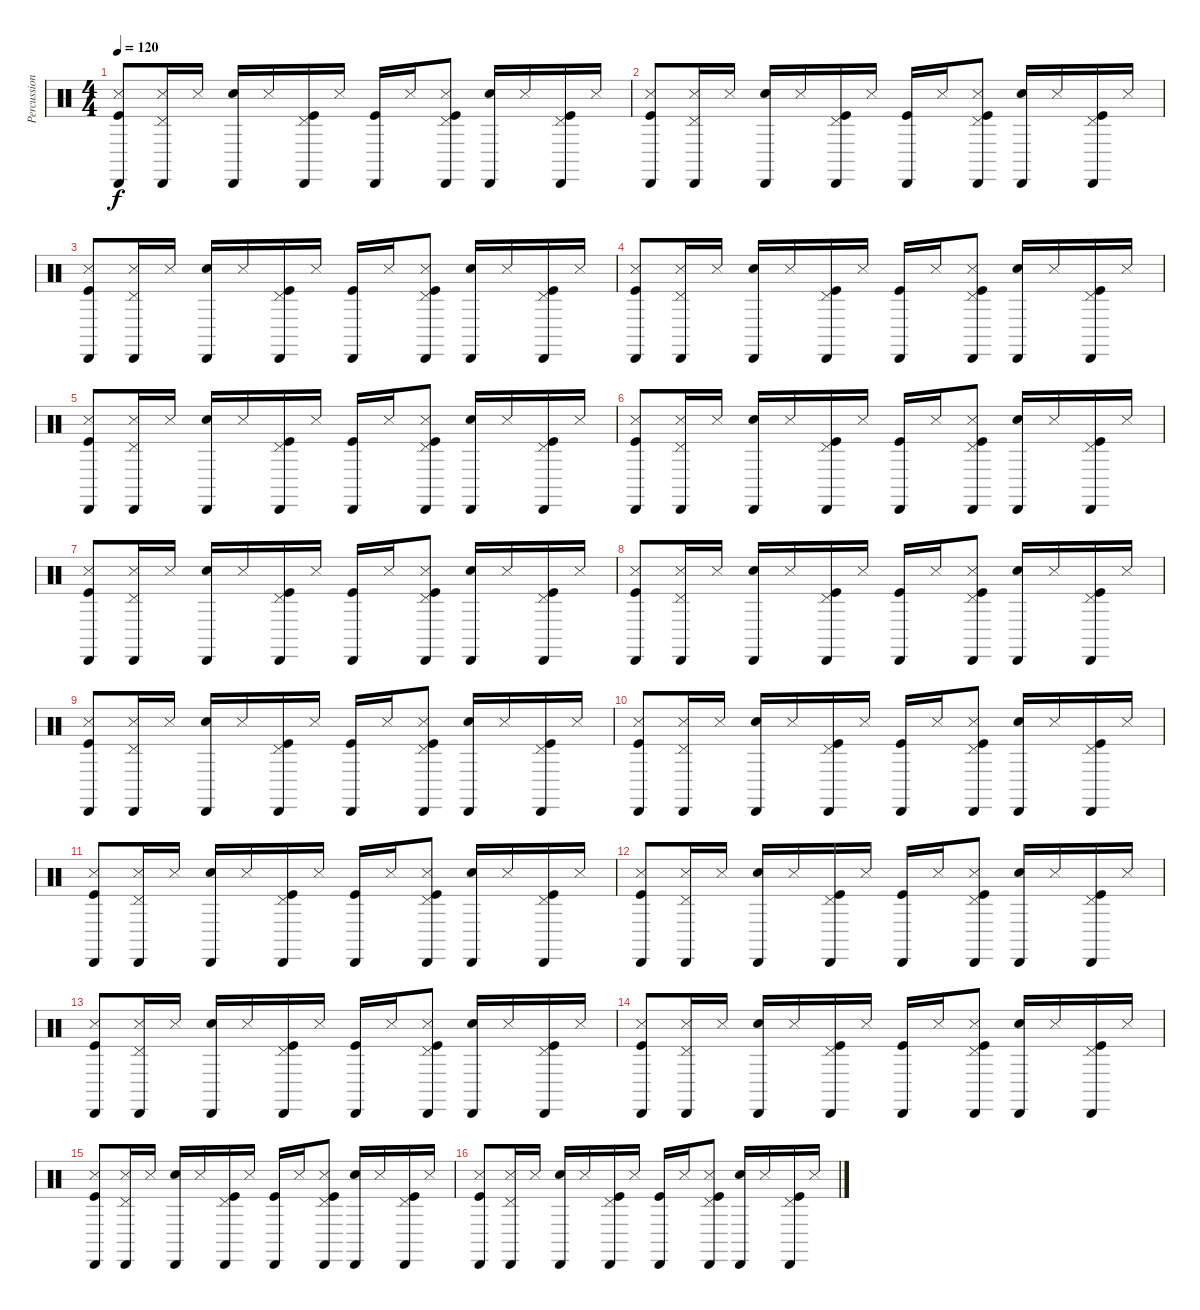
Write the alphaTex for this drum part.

\track ("Percussions" "Percussion") {instrument percussion}
\staff {score}
\articulation defaults
\ts (4 4)
\tempo 120
\clef neutral
\ks c
("Kick (hit)" "Cabasa (hit)" "Metronome (hit)").8{dy f} ("Cabasa (hit)" "Pedal Hi-Hat (hit)" "Metronome (hit)").16 "Metronome (hit)".16 ("Snare (hit) 2" "Cabasa (hit)").16 "Metronome (hit)".16 ("Kick (hit)" "Cabasa (hit)" "Pedal Hi-Hat (hit)").16 "Metronome (hit)".16 ("Kick (hit)" "Cabasa (hit)").16 "Metronome (hit)".16 ("Kick (hit)" "Cabasa (hit)" "Pedal Hi-Hat (hit)" "Metronome (hit)").8 ("Snare (hit) 2" "Cabasa (hit)").16 "Metronome (hit)".16 ("Kick (hit)" "Cabasa (hit)" "Pedal Hi-Hat (hit)").16 "Metronome (hit)".16 |
("Kick (hit)" "Cabasa (hit)" "Metronome (hit)").8 ("Cabasa (hit)" "Pedal Hi-Hat (hit)" "Metronome (hit)").16 "Metronome (hit)".16 ("Snare (hit) 2" "Cabasa (hit)").16 "Metronome (hit)".16 ("Kick (hit)" "Cabasa (hit)" "Pedal Hi-Hat (hit)").16 "Metronome (hit)".16 ("Kick (hit)" "Cabasa (hit)").16 "Metronome (hit)".16 ("Kick (hit)" "Cabasa (hit)" "Pedal Hi-Hat (hit)" "Metronome (hit)").8 ("Snare (hit) 2" "Cabasa (hit)").16 "Metronome (hit)".16 ("Kick (hit)" "Cabasa (hit)" "Pedal Hi-Hat (hit)").16 "Metronome (hit)".16 |
("Kick (hit)" "Cabasa (hit)" "Metronome (hit)").8 ("Cabasa (hit)" "Pedal Hi-Hat (hit)" "Metronome (hit)").16 "Metronome (hit)".16 ("Snare (hit) 2" "Cabasa (hit)").16 "Metronome (hit)".16 ("Kick (hit)" "Cabasa (hit)" "Pedal Hi-Hat (hit)").16 "Metronome (hit)".16 ("Kick (hit)" "Cabasa (hit)").16 "Metronome (hit)".16 ("Kick (hit)" "Cabasa (hit)" "Pedal Hi-Hat (hit)" "Metronome (hit)").8 ("Snare (hit) 2" "Cabasa (hit)").16 "Metronome (hit)".16 ("Kick (hit)" "Cabasa (hit)" "Pedal Hi-Hat (hit)").16 "Metronome (hit)".16 |
("Kick (hit)" "Cabasa (hit)" "Metronome (hit)").8 ("Cabasa (hit)" "Pedal Hi-Hat (hit)" "Metronome (hit)").16 "Metronome (hit)".16 ("Snare (hit) 2" "Cabasa (hit)").16 "Metronome (hit)".16 ("Kick (hit)" "Cabasa (hit)" "Pedal Hi-Hat (hit)").16 "Metronome (hit)".16 ("Kick (hit)" "Cabasa (hit)").16 "Metronome (hit)".16 ("Kick (hit)" "Cabasa (hit)" "Pedal Hi-Hat (hit)" "Metronome (hit)").8 ("Snare (hit) 2" "Cabasa (hit)").16 "Metronome (hit)".16 ("Kick (hit)" "Cabasa (hit)" "Pedal Hi-Hat (hit)").16 "Metronome (hit)".16 |
("Kick (hit)" "Cabasa (hit)" "Metronome (hit)").8 ("Cabasa (hit)" "Pedal Hi-Hat (hit)" "Metronome (hit)").16 "Metronome (hit)".16 ("Snare (hit) 2" "Cabasa (hit)").16 "Metronome (hit)".16 ("Kick (hit)" "Cabasa (hit)" "Pedal Hi-Hat (hit)").16 "Metronome (hit)".16 ("Kick (hit)" "Cabasa (hit)").16 "Metronome (hit)".16 ("Kick (hit)" "Cabasa (hit)" "Pedal Hi-Hat (hit)" "Metronome (hit)").8 ("Snare (hit) 2" "Cabasa (hit)").16 "Metronome (hit)".16 ("Kick (hit)" "Cabasa (hit)" "Pedal Hi-Hat (hit)").16 "Metronome (hit)".16 |
("Kick (hit)" "Cabasa (hit)" "Metronome (hit)").8 ("Cabasa (hit)" "Pedal Hi-Hat (hit)" "Metronome (hit)").16 "Metronome (hit)".16 ("Snare (hit) 2" "Cabasa (hit)").16 "Metronome (hit)".16 ("Kick (hit)" "Cabasa (hit)" "Pedal Hi-Hat (hit)").16 "Metronome (hit)".16 ("Kick (hit)" "Cabasa (hit)").16 "Metronome (hit)".16 ("Kick (hit)" "Cabasa (hit)" "Pedal Hi-Hat (hit)" "Metronome (hit)").8 ("Snare (hit) 2" "Cabasa (hit)").16 "Metronome (hit)".16 ("Kick (hit)" "Cabasa (hit)" "Pedal Hi-Hat (hit)").16 "Metronome (hit)".16 |
("Kick (hit)" "Cabasa (hit)" "Metronome (hit)").8 ("Cabasa (hit)" "Pedal Hi-Hat (hit)" "Metronome (hit)").16 "Metronome (hit)".16 ("Snare (hit) 2" "Cabasa (hit)").16 "Metronome (hit)".16 ("Kick (hit)" "Cabasa (hit)" "Pedal Hi-Hat (hit)").16 "Metronome (hit)".16 ("Kick (hit)" "Cabasa (hit)").16 "Metronome (hit)".16 ("Kick (hit)" "Cabasa (hit)" "Pedal Hi-Hat (hit)" "Metronome (hit)").8 ("Snare (hit) 2" "Cabasa (hit)").16 "Metronome (hit)".16 ("Kick (hit)" "Cabasa (hit)" "Pedal Hi-Hat (hit)").16 "Metronome (hit)".16 |
("Kick (hit)" "Cabasa (hit)" "Metronome (hit)").8 ("Cabasa (hit)" "Pedal Hi-Hat (hit)" "Metronome (hit)").16 "Metronome (hit)".16 ("Snare (hit) 2" "Cabasa (hit)").16 "Metronome (hit)".16 ("Kick (hit)" "Cabasa (hit)" "Pedal Hi-Hat (hit)").16 "Metronome (hit)".16 ("Kick (hit)" "Cabasa (hit)").16 "Metronome (hit)".16 ("Kick (hit)" "Cabasa (hit)" "Pedal Hi-Hat (hit)" "Metronome (hit)").8 ("Snare (hit) 2" "Cabasa (hit)").16 "Metronome (hit)".16 ("Kick (hit)" "Cabasa (hit)" "Pedal Hi-Hat (hit)").16 "Metronome (hit)".16 |
("Kick (hit)" "Cabasa (hit)" "Metronome (hit)").8 ("Cabasa (hit)" "Pedal Hi-Hat (hit)" "Metronome (hit)").16 "Metronome (hit)".16 ("Snare (hit) 2" "Cabasa (hit)").16 "Metronome (hit)".16 ("Kick (hit)" "Cabasa (hit)" "Pedal Hi-Hat (hit)").16 "Metronome (hit)".16 ("Kick (hit)" "Cabasa (hit)").16 "Metronome (hit)".16 ("Kick (hit)" "Cabasa (hit)" "Pedal Hi-Hat (hit)" "Metronome (hit)").8 ("Snare (hit) 2" "Cabasa (hit)").16 "Metronome (hit)".16 ("Kick (hit)" "Cabasa (hit)" "Pedal Hi-Hat (hit)").16 "Metronome (hit)".16 |
("Kick (hit)" "Cabasa (hit)" "Metronome (hit)").8 ("Cabasa (hit)" "Pedal Hi-Hat (hit)" "Metronome (hit)").16 "Metronome (hit)".16 ("Snare (hit) 2" "Cabasa (hit)").16 "Metronome (hit)".16 ("Kick (hit)" "Cabasa (hit)" "Pedal Hi-Hat (hit)").16 "Metronome (hit)".16 ("Kick (hit)" "Cabasa (hit)").16 "Metronome (hit)".16 ("Kick (hit)" "Cabasa (hit)" "Pedal Hi-Hat (hit)" "Metronome (hit)").8 ("Snare (hit) 2" "Cabasa (hit)").16 "Metronome (hit)".16 ("Kick (hit)" "Cabasa (hit)" "Pedal Hi-Hat (hit)").16 "Metronome (hit)".16 |
("Kick (hit)" "Cabasa (hit)" "Metronome (hit)").8 ("Cabasa (hit)" "Pedal Hi-Hat (hit)" "Metronome (hit)").16 "Metronome (hit)".16 ("Snare (hit) 2" "Cabasa (hit)").16 "Metronome (hit)".16 ("Kick (hit)" "Cabasa (hit)" "Pedal Hi-Hat (hit)").16 "Metronome (hit)".16 ("Kick (hit)" "Cabasa (hit)").16 "Metronome (hit)".16 ("Kick (hit)" "Cabasa (hit)" "Pedal Hi-Hat (hit)" "Metronome (hit)").8 ("Snare (hit) 2" "Cabasa (hit)").16 "Metronome (hit)".16 ("Kick (hit)" "Cabasa (hit)" "Pedal Hi-Hat (hit)").16 "Metronome (hit)".16 |
("Kick (hit)" "Cabasa (hit)" "Metronome (hit)").8 ("Cabasa (hit)" "Pedal Hi-Hat (hit)" "Metronome (hit)").16 "Metronome (hit)".16 ("Snare (hit) 2" "Cabasa (hit)").16 "Metronome (hit)".16 ("Kick (hit)" "Cabasa (hit)" "Pedal Hi-Hat (hit)").16 "Metronome (hit)".16 ("Kick (hit)" "Cabasa (hit)").16 "Metronome (hit)".16 ("Kick (hit)" "Cabasa (hit)" "Pedal Hi-Hat (hit)" "Metronome (hit)").8 ("Snare (hit) 2" "Cabasa (hit)").16 "Metronome (hit)".16 ("Kick (hit)" "Cabasa (hit)" "Pedal Hi-Hat (hit)").16 "Metronome (hit)".16 |
("Kick (hit)" "Cabasa (hit)" "Metronome (hit)").8 ("Cabasa (hit)" "Pedal Hi-Hat (hit)" "Metronome (hit)").16 "Metronome (hit)".16 ("Snare (hit) 2" "Cabasa (hit)").16 "Metronome (hit)".16 ("Kick (hit)" "Cabasa (hit)" "Pedal Hi-Hat (hit)").16 "Metronome (hit)".16 ("Kick (hit)" "Cabasa (hit)").16 "Metronome (hit)".16 ("Kick (hit)" "Cabasa (hit)" "Pedal Hi-Hat (hit)" "Metronome (hit)").8 ("Snare (hit) 2" "Cabasa (hit)").16 "Metronome (hit)".16 ("Kick (hit)" "Cabasa (hit)" "Pedal Hi-Hat (hit)").16 "Metronome (hit)".16 |
("Kick (hit)" "Cabasa (hit)" "Metronome (hit)").8 ("Cabasa (hit)" "Pedal Hi-Hat (hit)" "Metronome (hit)").16 "Metronome (hit)".16 ("Snare (hit) 2" "Cabasa (hit)").16 "Metronome (hit)".16 ("Kick (hit)" "Cabasa (hit)" "Pedal Hi-Hat (hit)").16 "Metronome (hit)".16 ("Kick (hit)" "Cabasa (hit)").16 "Metronome (hit)".16 ("Kick (hit)" "Cabasa (hit)" "Pedal Hi-Hat (hit)" "Metronome (hit)").8 ("Snare (hit) 2" "Cabasa (hit)").16 "Metronome (hit)".16 ("Kick (hit)" "Cabasa (hit)" "Pedal Hi-Hat (hit)").16 "Metronome (hit)".16 |
("Kick (hit)" "Cabasa (hit)" "Metronome (hit)").8 ("Cabasa (hit)" "Pedal Hi-Hat (hit)" "Metronome (hit)").16 "Metronome (hit)".16 ("Snare (hit) 2" "Cabasa (hit)").16 "Metronome (hit)".16 ("Kick (hit)" "Cabasa (hit)" "Pedal Hi-Hat (hit)").16 "Metronome (hit)".16 ("Kick (hit)" "Cabasa (hit)").16 "Metronome (hit)".16 ("Kick (hit)" "Cabasa (hit)" "Pedal Hi-Hat (hit)" "Metronome (hit)").8 ("Snare (hit) 2" "Cabasa (hit)").16 "Metronome (hit)".16 ("Kick (hit)" "Cabasa (hit)" "Pedal Hi-Hat (hit)").16 "Metronome (hit)".16 |
("Metronome (hit)" "Cabasa (hit)" "Kick (hit)").8 ("Cabasa (hit)" "Pedal Hi-Hat (hit)" "Metronome (hit)").16 "Metronome (hit)".16 ("Snare (hit) 2" "Cabasa (hit)").16 "Metronome (hit)".16 ("Kick (hit)" "Cabasa (hit)" "Pedal Hi-Hat (hit)").16 "Metronome (hit)".16 ("Kick (hit)" "Cabasa (hit)").16 "Metronome (hit)".16 ("Kick (hit)" "Cabasa (hit)" "Pedal Hi-Hat (hit)" "Metronome (hit)").8 ("Snare (hit) 2" "Cabasa (hit)").16 "Metronome (hit)".16 ("Kick (hit)" "Cabasa (hit)" "Pedal Hi-Hat (hit)").16 "Metronome (hit)".16
